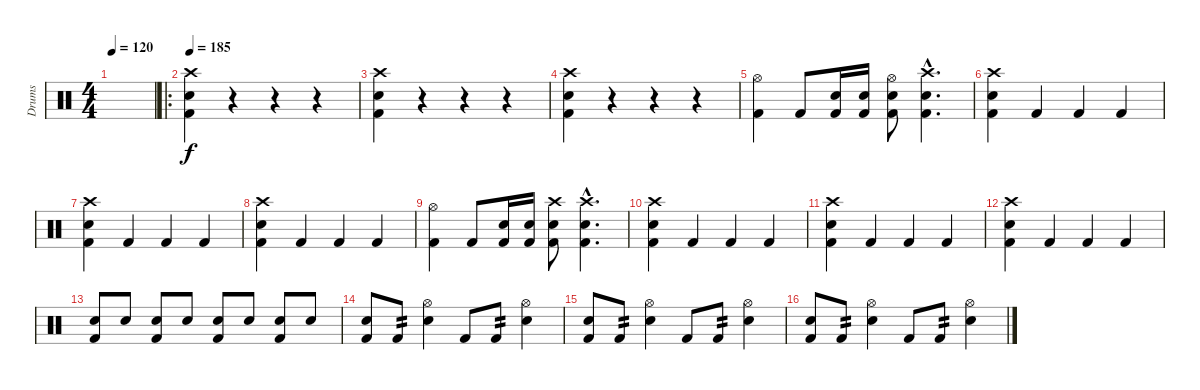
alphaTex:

\track ("Drums" "Drums") {instrument percussion}
\staff {score}
\articulation defaults
\ts (4 4)
\tempo 120
\clef neutral
\ks c
|
\ro
\tempo 185
("Crash high (hit)" "Snare (hit) 2" "Kick (hit) 2").4 r.4 r.4 r.4 |
("Crash high (hit)" "Snare (hit) 2" "Kick (hit) 2").4 r.4 r.4 r.4 |
("Crash high (hit)" "Snare (hit) 2" "Kick (hit) 2").4 r.4 r.4 r.4 |
("Hi-Hat (open)" "Kick (hit) 2").4 "Kick (hit) 2".8 ("Snare (hit) 2" "Kick (hit) 2").16 ("Snare (hit) 2" "Kick (hit) 2").16 ("Hi-Hat (open)" "Snare (hit) 2" "Kick (hit) 2").8 ("Crash high (hit)"{hac} "Snare (hit) 2"{hac} "Kick (hit) 2"{hac}).4{d} |
("Crash high (hit)" "Snare (hit) 2" "Kick (hit) 2").4 "Kick (hit) 2".4 "Kick (hit) 2".4 "Kick (hit) 2".4 |
("Crash high (hit)" "Snare (hit) 2" "Kick (hit) 2").4 "Kick (hit) 2".4 "Kick (hit) 2".4 "Kick (hit) 2".4 |
("Crash high (hit)" "Snare (hit) 2" "Kick (hit) 2").4 "Kick (hit) 2".4 "Kick (hit) 2".4 "Kick (hit) 2".4 |
("Hi-Hat (open)" "Kick (hit) 2").4 "Kick (hit) 2".8 ("Snare (hit) 2" "Kick (hit) 2").16 ("Snare (hit) 2" "Kick (hit) 2").16 ("Crash high (hit)" "Snare (hit) 2" "Kick (hit) 2").8 ("Crash high (hit)"{hac} "Snare (hit) 2"{hac} "Kick (hit) 2"{hac}).4{d} |
("Crash high (hit)" "Snare (hit) 2" "Kick (hit) 2").4 "Kick (hit) 2".4 "Kick (hit) 2".4 "Kick (hit) 2".4 |
("Crash high (hit)" "Snare (hit) 2" "Kick (hit) 2").4 "Kick (hit) 2".4 "Kick (hit) 2".4 "Kick (hit) 2".4 |
("Crash high (hit)" "Snare (hit) 2" "Kick (hit) 2").4 "Kick (hit) 2".4 "Kick (hit) 2".4 "Kick (hit) 2".4 |
("Snare (hit) 2" "Kick (hit) 2").8 "Snare (hit) 2".8 ("Snare (hit) 2" "Kick (hit) 2").8 "Snare (hit) 2".8 ("Snare (hit) 2" "Kick (hit) 2").8 "Snare (hit) 2".8 ("Snare (hit) 2" "Kick (hit) 2").8 "Snare (hit) 2".8 |
("Snare (hit) 2" "Kick (hit) 2").8 "Kick (hit) 2".8{tp 2} ("Hi-Hat (open)" "Snare (hit) 2").4 "Kick (hit) 2".8 "Kick (hit) 2".8{tp 2} ("Hi-Hat (open)" "Snare (hit) 2").4 |
("Snare (hit) 2" "Kick (hit) 2").8 "Kick (hit) 2".8{tp 2} ("Hi-Hat (open)" "Snare (hit) 2").4 "Kick (hit) 2".8 "Kick (hit) 2".8{tp 2} ("Hi-Hat (open)" "Snare (hit) 2").4 |
("Snare (hit) 2" "Kick (hit) 2").8 "Kick (hit) 2".8{tp 2} ("Hi-Hat (open)" "Snare (hit) 2").4 "Kick (hit) 2".8 "Kick (hit) 2".8{tp 2} ("Hi-Hat (open)" "Snare (hit) 2").4
